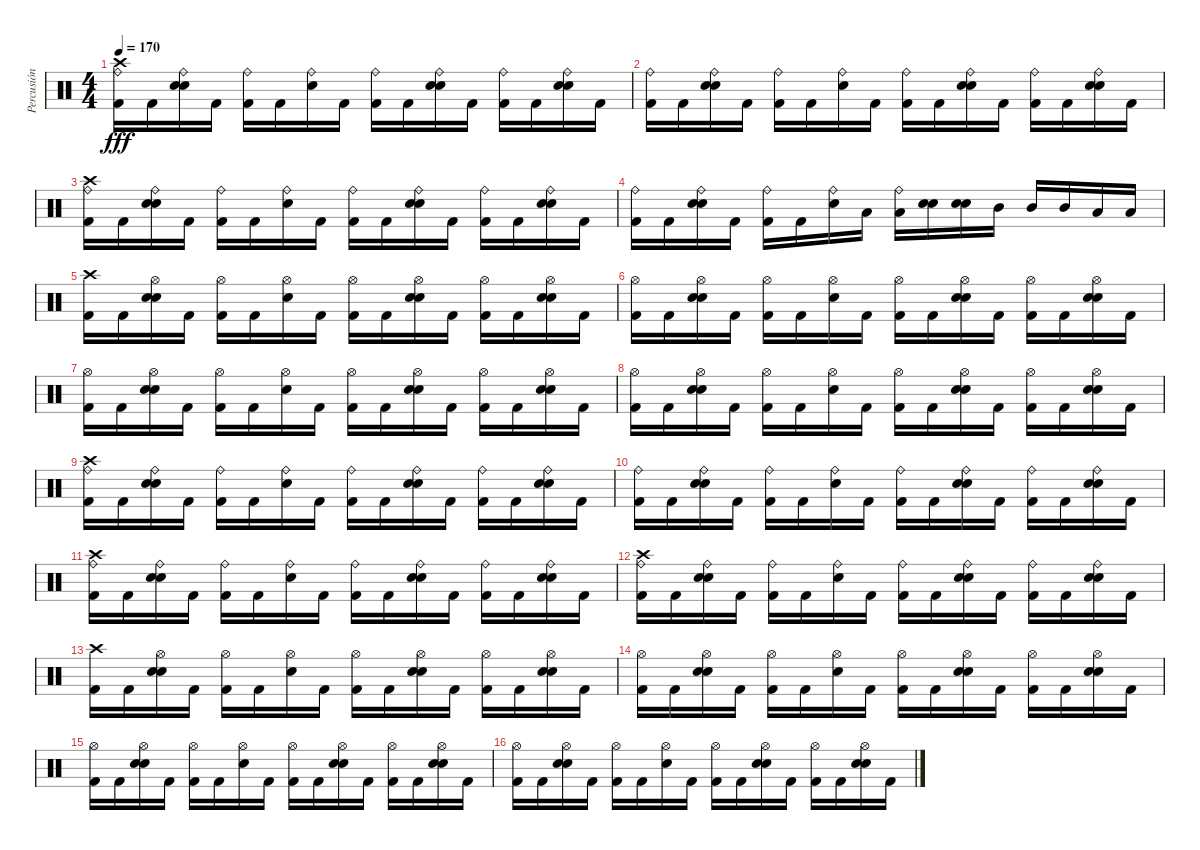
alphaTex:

\track ("Percusión" "Percusión") {instrument percussion}
\staff {score}
\articulation defaults
\ts (4 4)
\tempo 170
\clef neutral
\ks c
("Kick (hit) 2" "Ride (bell)" "Crash high (hit)").16{dy fff} "Kick (hit) 2".16 ("Snare (hit) 2" "Electric Snare (hit)" "Ride (bell)").16 "Kick (hit) 2".16 ("Kick (hit) 2" "Ride (bell)").16 "Kick (hit) 2".16 ("Snare (hit) 2" "Ride (bell)").16 "Kick (hit) 2".16 ("Kick (hit) 2" "Ride (bell)").16 "Kick (hit) 2".16 ("Snare (hit) 2" "Electric Snare (hit)" "Ride (bell)").16 "Kick (hit) 2".16 ("Kick (hit) 2" "Ride (bell)").16 "Kick (hit) 2".16 ("Snare (hit) 2" "Electric Snare (hit)" "Ride (bell)").16 "Kick (hit) 2".16 |
("Kick (hit) 2" "Ride (bell)").16 "Kick (hit) 2".16 ("Snare (hit) 2" "Electric Snare (hit)" "Ride (bell)").16 "Kick (hit) 2".16 ("Kick (hit) 2" "Ride (bell)").16 "Kick (hit) 2".16 ("Snare (hit) 2" "Ride (bell)").16 "Kick (hit) 2".16 ("Kick (hit) 2" "Ride (bell)").16 "Kick (hit) 2".16 ("Snare (hit) 2" "Electric Snare (hit)" "Ride (bell)").16 "Kick (hit) 2".16 ("Kick (hit) 2" "Ride (bell)").16 "Kick (hit) 2".16 ("Snare (hit) 2" "Electric Snare (hit)" "Ride (bell)").16 "Kick (hit) 2".16 |
("Kick (hit) 2" "Ride (bell)" "Crash high (hit)").16 "Kick (hit) 2".16 ("Snare (hit) 2" "Electric Snare (hit)" "Ride (bell)").16 "Kick (hit) 2".16 ("Kick (hit) 2" "Ride (bell)").16 "Kick (hit) 2".16 ("Snare (hit) 2" "Ride (bell)").16 "Kick (hit) 2".16 ("Kick (hit) 2" "Ride (bell)").16 "Kick (hit) 2".16 ("Snare (hit) 2" "Electric Snare (hit)" "Ride (bell)").16 "Kick (hit) 2".16 ("Kick (hit) 2" "Ride (bell)").16 "Kick (hit) 2".16 ("Snare (hit) 2" "Electric Snare (hit)" "Ride (bell)").16 "Kick (hit) 2".16 |
("Kick (hit) 2" "Ride (bell)").16 "Kick (hit) 2".16 ("Snare (hit) 2" "Electric Snare (hit)" "Ride (bell)").16 "Kick (hit) 2".16 ("Kick (hit) 2" "Ride (bell)").16 "Kick (hit) 2".16 ("Snare (hit) 2" "Ride (bell)").16 "Low Tom (hit)".16 ("Low Tom (hit)" "Ride (bell)").16 ("Snare (hit) 2" "Electric Snare (hit)").16 ("Snare (hit) 2" "Electric Snare (hit)").16 "Mid Tom (hit)".16 "Mid Tom (hit)".16 "Mid Tom (hit)".16 "Low Tom (hit)".16 "Low Tom (hit)".16 |
("Kick (hit) 2" "Crash high (hit)").16 "Kick (hit) 2".16 ("Snare (hit) 2" "Electric Snare (hit)" "Hi-Hat (open)").16 "Kick (hit) 2".16 ("Kick (hit) 2" "Hi-Hat (open)").16 "Kick (hit) 2".16 ("Snare (hit) 2" "Hi-Hat (open)").16 "Kick (hit) 2".16 ("Kick (hit) 2" "Hi-Hat (open)").16 "Kick (hit) 2".16 ("Snare (hit) 2" "Electric Snare (hit)" "Hi-Hat (open)").16 "Kick (hit) 2".16 ("Kick (hit) 2" "Hi-Hat (open)").16 "Kick (hit) 2".16 ("Snare (hit) 2" "Electric Snare (hit)" "Hi-Hat (open)").16 "Kick (hit) 2".16 |
("Kick (hit) 2" "Hi-Hat (open)").16 "Kick (hit) 2".16 ("Snare (hit) 2" "Electric Snare (hit)" "Hi-Hat (open)").16 "Kick (hit) 2".16 ("Kick (hit) 2" "Hi-Hat (open)").16 "Kick (hit) 2".16 ("Snare (hit) 2" "Hi-Hat (open)").16 "Kick (hit) 2".16 ("Kick (hit) 2" "Hi-Hat (open)").16 "Kick (hit) 2".16 ("Snare (hit) 2" "Electric Snare (hit)" "Hi-Hat (open)").16 "Kick (hit) 2".16 ("Kick (hit) 2" "Hi-Hat (open)").16 "Kick (hit) 2".16 ("Snare (hit) 2" "Electric Snare (hit)" "Hi-Hat (open)").16 "Kick (hit) 2".16 |
("Kick (hit) 2" "Hi-Hat (open)").16 "Kick (hit) 2".16 ("Snare (hit) 2" "Electric Snare (hit)" "Hi-Hat (open)").16 "Kick (hit) 2".16 ("Kick (hit) 2" "Hi-Hat (open)").16 "Kick (hit) 2".16 ("Snare (hit) 2" "Hi-Hat (open)").16 "Kick (hit) 2".16 ("Kick (hit) 2" "Hi-Hat (open)").16 "Kick (hit) 2".16 ("Snare (hit) 2" "Electric Snare (hit)" "Hi-Hat (open)").16 "Kick (hit) 2".16 ("Kick (hit) 2" "Hi-Hat (open)").16 "Kick (hit) 2".16 ("Snare (hit) 2" "Electric Snare (hit)" "Hi-Hat (open)").16 "Kick (hit) 2".16 |
("Kick (hit) 2" "Hi-Hat (open)").16 "Kick (hit) 2".16 ("Snare (hit) 2" "Electric Snare (hit)" "Hi-Hat (open)").16 "Kick (hit) 2".16 ("Kick (hit) 2" "Hi-Hat (open)").16 "Kick (hit) 2".16 ("Snare (hit) 2" "Hi-Hat (open)").16 "Kick (hit) 2".16 ("Kick (hit) 2" "Hi-Hat (open)").16 "Kick (hit) 2".16 ("Snare (hit) 2" "Electric Snare (hit)" "Hi-Hat (open)").16 "Kick (hit) 2".16 ("Kick (hit) 2" "Hi-Hat (open)").16 "Kick (hit) 2".16 ("Snare (hit) 2" "Electric Snare (hit)" "Hi-Hat (open)").16 "Kick (hit) 2".16 |
("Kick (hit) 2" "Ride (bell)" "Crash high (hit)").16 "Kick (hit) 2".16 ("Snare (hit) 2" "Electric Snare (hit)" "Ride (bell)").16 "Kick (hit) 2".16 ("Kick (hit) 2" "Ride (bell)").16 "Kick (hit) 2".16 ("Snare (hit) 2" "Ride (bell)").16 "Kick (hit) 2".16 ("Kick (hit) 2" "Ride (bell)").16 "Kick (hit) 2".16 ("Snare (hit) 2" "Electric Snare (hit)" "Ride (bell)").16 "Kick (hit) 2".16 ("Kick (hit) 2" "Ride (bell)").16 "Kick (hit) 2".16 ("Snare (hit) 2" "Electric Snare (hit)" "Ride (bell)").16 "Kick (hit) 2".16 |
("Kick (hit) 2" "Ride (bell)").16 "Kick (hit) 2".16 ("Snare (hit) 2" "Electric Snare (hit)" "Ride (bell)").16 "Kick (hit) 2".16 ("Kick (hit) 2" "Ride (bell)").16 "Kick (hit) 2".16 ("Snare (hit) 2" "Ride (bell)").16 "Kick (hit) 2".16 ("Kick (hit) 2" "Ride (bell)").16 "Kick (hit) 2".16 ("Snare (hit) 2" "Electric Snare (hit)" "Ride (bell)").16 "Kick (hit) 2".16 ("Kick (hit) 2" "Ride (bell)").16 "Kick (hit) 2".16 ("Snare (hit) 2" "Electric Snare (hit)" "Ride (bell)").16 "Kick (hit) 2".16 |
("Kick (hit) 2" "Ride (bell)" "Crash high (hit)").16 "Kick (hit) 2".16 ("Snare (hit) 2" "Electric Snare (hit)" "Ride (bell)").16 "Kick (hit) 2".16 ("Kick (hit) 2" "Ride (bell)").16 "Kick (hit) 2".16 ("Snare (hit) 2" "Ride (bell)").16 "Kick (hit) 2".16 ("Kick (hit) 2" "Ride (bell)").16 "Kick (hit) 2".16 ("Snare (hit) 2" "Electric Snare (hit)" "Ride (bell)").16 "Kick (hit) 2".16 ("Kick (hit) 2" "Ride (bell)").16 "Kick (hit) 2".16 ("Snare (hit) 2" "Electric Snare (hit)" "Ride (bell)").16 "Kick (hit) 2".16 |
("Kick (hit) 2" "Ride (bell)" "Crash high (hit)").16 "Kick (hit) 2".16 ("Snare (hit) 2" "Electric Snare (hit)" "Ride (bell)").16 "Kick (hit) 2".16 ("Kick (hit) 2" "Ride (bell)").16 "Kick (hit) 2".16 ("Snare (hit) 2" "Ride (bell)").16 "Kick (hit) 2".16 ("Kick (hit) 2" "Ride (bell)").16 "Kick (hit) 2".16 ("Snare (hit) 2" "Electric Snare (hit)" "Ride (bell)").16 "Kick (hit) 2".16 ("Kick (hit) 2" "Ride (bell)").16 "Kick (hit) 2".16 ("Snare (hit) 2" "Electric Snare (hit)" "Ride (bell)").16 "Kick (hit) 2".16 |
("Kick (hit) 2" "Crash high (hit)").16 "Kick (hit) 2".16 ("Snare (hit) 2" "Electric Snare (hit)" "Hi-Hat (open)").16 "Kick (hit) 2".16 ("Kick (hit) 2" "Hi-Hat (open)").16 "Kick (hit) 2".16 ("Snare (hit) 2" "Hi-Hat (open)").16 "Kick (hit) 2".16 ("Kick (hit) 2" "Hi-Hat (open)").16 "Kick (hit) 2".16 ("Snare (hit) 2" "Electric Snare (hit)" "Hi-Hat (open)").16 "Kick (hit) 2".16 ("Kick (hit) 2" "Hi-Hat (open)").16 "Kick (hit) 2".16 ("Snare (hit) 2" "Electric Snare (hit)" "Hi-Hat (open)").16 "Kick (hit) 2".16 |
("Kick (hit) 2" "Hi-Hat (open)").16 "Kick (hit) 2".16 ("Snare (hit) 2" "Electric Snare (hit)" "Hi-Hat (open)").16 "Kick (hit) 2".16 ("Kick (hit) 2" "Hi-Hat (open)").16 "Kick (hit) 2".16 ("Snare (hit) 2" "Hi-Hat (open)").16 "Kick (hit) 2".16 ("Kick (hit) 2" "Hi-Hat (open)").16 "Kick (hit) 2".16 ("Snare (hit) 2" "Electric Snare (hit)" "Hi-Hat (open)").16 "Kick (hit) 2".16 ("Kick (hit) 2" "Hi-Hat (open)").16 "Kick (hit) 2".16 ("Snare (hit) 2" "Electric Snare (hit)" "Hi-Hat (open)").16 "Kick (hit) 2".16 |
("Kick (hit) 2" "Hi-Hat (open)").16 "Kick (hit) 2".16 ("Snare (hit) 2" "Electric Snare (hit)" "Hi-Hat (open)").16 "Kick (hit) 2".16 ("Kick (hit) 2" "Hi-Hat (open)").16 "Kick (hit) 2".16 ("Snare (hit) 2" "Hi-Hat (open)").16 "Kick (hit) 2".16 ("Kick (hit) 2" "Hi-Hat (open)").16 "Kick (hit) 2".16 ("Snare (hit) 2" "Electric Snare (hit)" "Hi-Hat (open)").16 "Kick (hit) 2".16 ("Kick (hit) 2" "Hi-Hat (open)").16 "Kick (hit) 2".16 ("Snare (hit) 2" "Electric Snare (hit)" "Hi-Hat (open)").16 "Kick (hit) 2".16 |
("Kick (hit) 2" "Hi-Hat (open)").16 "Kick (hit) 2".16 ("Snare (hit) 2" "Electric Snare (hit)" "Hi-Hat (open)").16 "Kick (hit) 2".16 ("Kick (hit) 2" "Hi-Hat (open)").16 "Kick (hit) 2".16 ("Snare (hit) 2" "Hi-Hat (open)").16 "Kick (hit) 2".16 ("Kick (hit) 2" "Hi-Hat (open)").16 "Kick (hit) 2".16 ("Snare (hit) 2" "Electric Snare (hit)" "Hi-Hat (open)").16 "Kick (hit) 2".16 ("Kick (hit) 2" "Hi-Hat (open)").16 "Kick (hit) 2".16 ("Snare (hit) 2" "Electric Snare (hit)" "Hi-Hat (open)").16 "Kick (hit) 2".16
